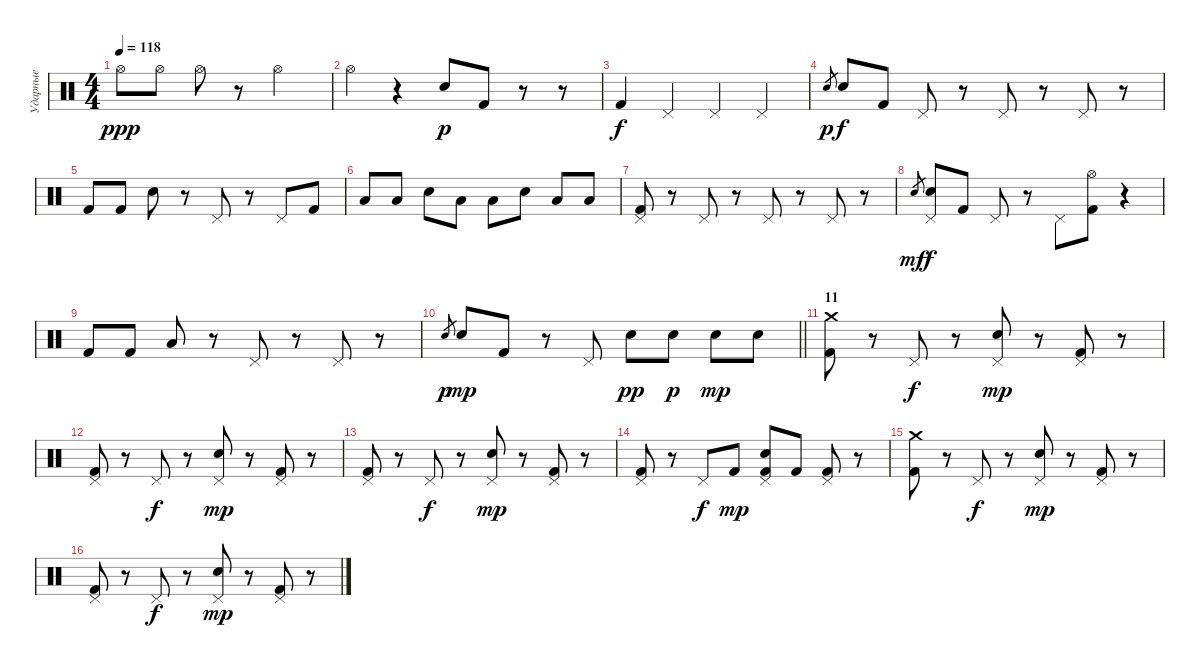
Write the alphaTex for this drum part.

\track ("Ударные" "Ударные") {instrument percussion}
\staff {score}
\articulation defaults
\ts (4 4)
\tempo 118
\clef neutral
\ks c "Hi-Hat (open)".8{dy ppp} "Hi-Hat (open)".8 "Hi-Hat (open)".8
r.8 "Hi-Hat (open)".2 |
"Hi-Hat (open)".4 r.4 "Snare (hit) 2".8{dy p} "Kick (hit) 2".8 r.8 r.8 |
"Kick (hit) 2".4{dy f} "Pedal Hi-Hat (hit)".4 "Pedal Hi-Hat (hit)".4 "Pedal Hi-Hat (hit)".4 |
"Snare (hit) 2".8{gr dy p} "Snare (hit) 2".8{dy f} "Kick (hit) 2".8 "Pedal Hi-Hat (hit)".8 r.8 "Pedal Hi-Hat (hit)".8 r.8 "Pedal Hi-Hat (hit)".8 r.8 |
"Kick (hit) 2".8 "Kick (hit) 2".8 "Snare (hit) 2".8 r.8 "Pedal Hi-Hat (hit)".8 r.8 "Pedal Hi-Hat (hit)".8 "Kick (hit) 2".8 |
"Low Tom (hit)".8 "Low Tom (hit)".8 "Snare (hit) 2".8 "Low Tom (hit)".8 "Low Tom (hit)".8 "Snare (hit) 2".8 "Low Tom (hit)".8 "Low Tom (hit)".8 |
("Pedal Hi-Hat (hit)" "Kick (hit) 2").8 r.8 "Pedal Hi-Hat (hit)".8 r.8 "Pedal Hi-Hat (hit)".8 r.8 "Pedal Hi-Hat (hit)".8 r.8 |
"Snare (hit) 2".8{gr dy mf} ("Pedal Hi-Hat (hit)" "Snare (hit) 2").8{dy f} "Kick (hit) 2".8 "Pedal Hi-Hat (hit)".8 r.8 "Pedal Hi-Hat (hit)".8 ("Hi-Hat (open)" "Kick (hit) 2").8 r.4 |
"Kick (hit) 2".8 "Kick (hit) 2".8 "Low Tom (hit)".8 r.8 "Pedal Hi-Hat (hit)".8 r.8 "Pedal Hi-Hat (hit)".8 r.8 |
\barLineRight lightlight "Snare (hit) 2".8{gr dy p} "Snare (hit) 2".8{dy mp} "Kick (hit) 2".8
r.8 "Pedal Hi-Hat (hit)".8 "Snare (hit) 2".8{dy pp} "Snare (hit) 2".8{dy p} "Snare (hit) 2".8{dy mp} "Snare (hit) 2".8 |
\section ("" "11")
("Crash medium (hit)" "Kick (hit) 2").8 r.8 "Pedal Hi-Hat (hit)".8{dy f} r.8 ("Pedal Hi-Hat (hit)" "Snare (hit) 2").8{dy mp} r.8 ("Pedal Hi-Hat (hit)" "Kick (hit) 2").8 r.8 |
("Pedal Hi-Hat (hit)" "Kick (hit) 2").8 r.8 "Pedal Hi-Hat (hit)".8{dy f} r.8 ("Pedal Hi-Hat (hit)" "Snare (hit) 2").8{dy mp} r.8 ("Pedal Hi-Hat (hit)" "Kick (hit) 2").8 r.8 |
("Pedal Hi-Hat (hit)" "Kick (hit) 2").8 r.8 "Pedal Hi-Hat (hit)".8{dy f} r.8 ("Pedal Hi-Hat (hit)" "Snare (hit) 2").8{dy mp} r.8 ("Pedal Hi-Hat (hit)" "Kick (hit) 2").8 r.8 |
("Pedal Hi-Hat (hit)" "Kick (hit) 2").8 r.8 "Pedal Hi-Hat (hit)".8{dy f} "Kick (hit) 2".8{dy mp} ("Pedal Hi-Hat (hit)" "Snare (hit) 2" "Kick (hit) 2").8 "Kick (hit) 2".8 ("Pedal Hi-Hat (hit)" "Kick (hit) 2").8 r.8 |
("Crash medium (hit)" "Kick (hit) 2").8 r.8 "Pedal Hi-Hat (hit)".8{dy f} r.8 ("Pedal Hi-Hat (hit)" "Snare (hit) 2").8{dy mp} r.8 ("Pedal Hi-Hat (hit)" "Kick (hit) 2").8 r.8 |
("Pedal Hi-Hat (hit)" "Kick (hit) 2").8 r.8 "Pedal Hi-Hat (hit)".8{dy f} r.8 ("Pedal Hi-Hat (hit)" "Snare (hit) 2").8{dy mp} r.8 ("Pedal Hi-Hat (hit)" "Kick (hit) 2").8 r.8
